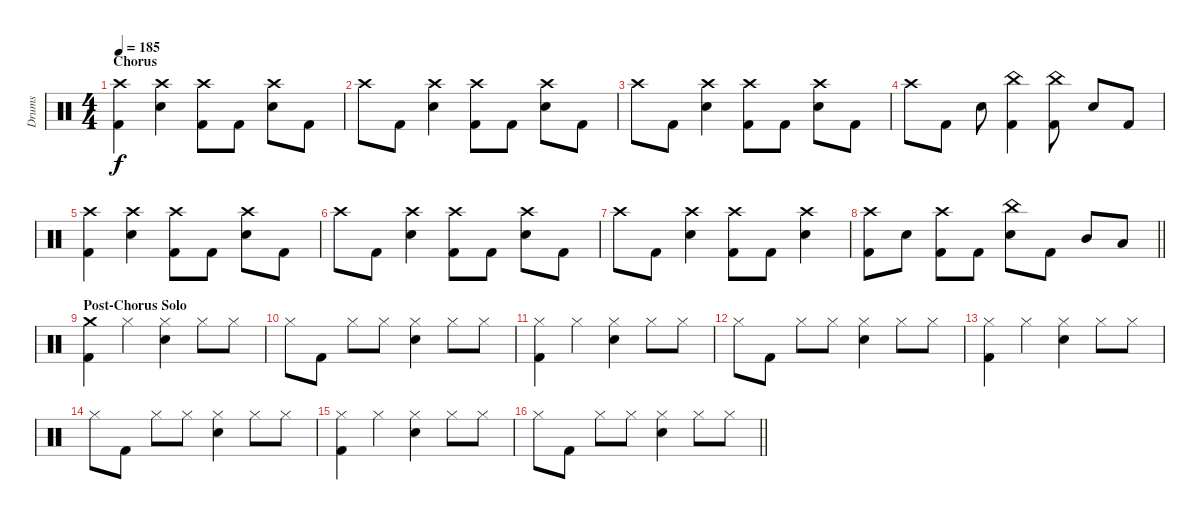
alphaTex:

\track ("Drums" "Drums") {instrument percussion}
\staff {score}
\articulation defaults
\ts (4 4)
\section ("" "Chorus")
\tempo 185
\clef neutral
\ks c
("Crash high (hit)" "Kick (hit) 2").4{dy f} ("Crash high (hit)" "Electric Snare (hit)").4 ("Crash high (hit)" "Kick (hit) 2").8 "Kick (hit) 2".8 ("Crash high (hit)" "Electric Snare (hit)").8 "Kick (hit) 2".8 |
"Crash high (hit)".8 "Kick (hit) 2".8 ("Crash high (hit)" "Electric Snare (hit)").4 ("Crash high (hit)" "Kick (hit) 2").8 "Kick (hit) 2".8 ("Crash high (hit)" "Electric Snare (hit)").8 "Kick (hit) 2".8 |
"Crash high (hit)".8 "Kick (hit) 2".8 ("Crash high (hit)" "Electric Snare (hit)").4 ("Crash high (hit)" "Kick (hit) 2").8 "Kick (hit) 2".8 ("Crash high (hit)" "Electric Snare (hit)").8 "Kick (hit) 2".8 |
"Crash high (hit)".8 "Kick (hit) 2".8 "Electric Snare (hit)".8 ("China (hit)" "Kick (hit) 2").4 ("China (hit)" "Kick (hit) 2").8 "Electric Snare (hit)".8 "Kick (hit) 2".8 |
("Crash high (hit)" "Kick (hit) 2").4 ("Crash high (hit)" "Electric Snare (hit)").4 ("Crash high (hit)" "Kick (hit) 2").8 "Kick (hit) 2".8 ("Crash high (hit)" "Electric Snare (hit)").8 "Kick (hit) 2".8 |
"Crash high (hit)".8 "Kick (hit) 2".8 ("Crash high (hit)" "Electric Snare (hit)").4 ("Crash high (hit)" "Kick (hit) 2").8 "Kick (hit) 2".8 ("Crash high (hit)" "Electric Snare (hit)").8 "Kick (hit) 2".8 |
"Crash high (hit)".8 "Kick (hit) 2".8 ("Crash high (hit)" "Electric Snare (hit)").4 ("Crash high (hit)" "Kick (hit) 2").8 "Kick (hit) 2".8 ("Crash high (hit)" "Electric Snare (hit)").4 |
\barLineRight lightlight
("Crash high (hit)" "Kick (hit) 2").8 "Electric Snare (hit)".8 ("Crash high (hit)" "Kick (hit) 2").8 "Kick (hit) 2".8 ("China (hit)" "Electric Snare (hit)").8 "Kick (hit) 2".8 "Mid Tom (hit)".8 "Low Tom (hit)".8 |
\section ("" "Post-Chorus Solo")
("Crash medium (hit)" "Kick (hit) 2").4 "Hi-Hat (closed)".4 ("Hi-Hat (closed)" "Electric Snare (hit)").4 "Hi-Hat (closed)".8 "Hi-Hat (closed)".8 |
"Hi-Hat (closed)".8 "Kick (hit) 2".8 "Hi-Hat (closed)".8 "Hi-Hat (closed)".8 ("Hi-Hat (closed)" "Electric Snare (hit)").4 "Hi-Hat (closed)".8 "Hi-Hat (closed)".8 |
("Hi-Hat (closed)" "Kick (hit) 2").4 "Hi-Hat (closed)".4 ("Hi-Hat (closed)" "Electric Snare (hit)").4 "Hi-Hat (closed)".8 "Hi-Hat (closed)".8 |
"Hi-Hat (closed)".8 "Kick (hit) 2".8 "Hi-Hat (closed)".8 "Hi-Hat (closed)".8 ("Hi-Hat (closed)" "Electric Snare (hit)").4 "Hi-Hat (closed)".8 "Hi-Hat (closed)".8 |
("Hi-Hat (closed)" "Kick (hit) 2").4 "Hi-Hat (closed)".4 ("Hi-Hat (closed)" "Electric Snare (hit)").4 "Hi-Hat (closed)".8 "Hi-Hat (closed)".8 |
"Hi-Hat (closed)".8 "Kick (hit) 2".8 "Hi-Hat (closed)".8 "Hi-Hat (closed)".8 ("Hi-Hat (closed)" "Electric Snare (hit)").4 "Hi-Hat (closed)".8 "Hi-Hat (closed)".8 |
("Hi-Hat (closed)" "Kick (hit) 2").4 "Hi-Hat (closed)".4 ("Hi-Hat (closed)" "Electric Snare (hit)").4 "Hi-Hat (closed)".8 "Hi-Hat (closed)".8 |
\barLineRight lightlight "Hi-Hat (closed)".8 "Kick (hit) 2".8 "Hi-Hat (closed)".8 "Hi-Hat (closed)".8
("Hi-Hat (closed)" "Electric Snare (hit)").4 "Hi-Hat (closed)".8 "Hi-Hat (closed)".8
